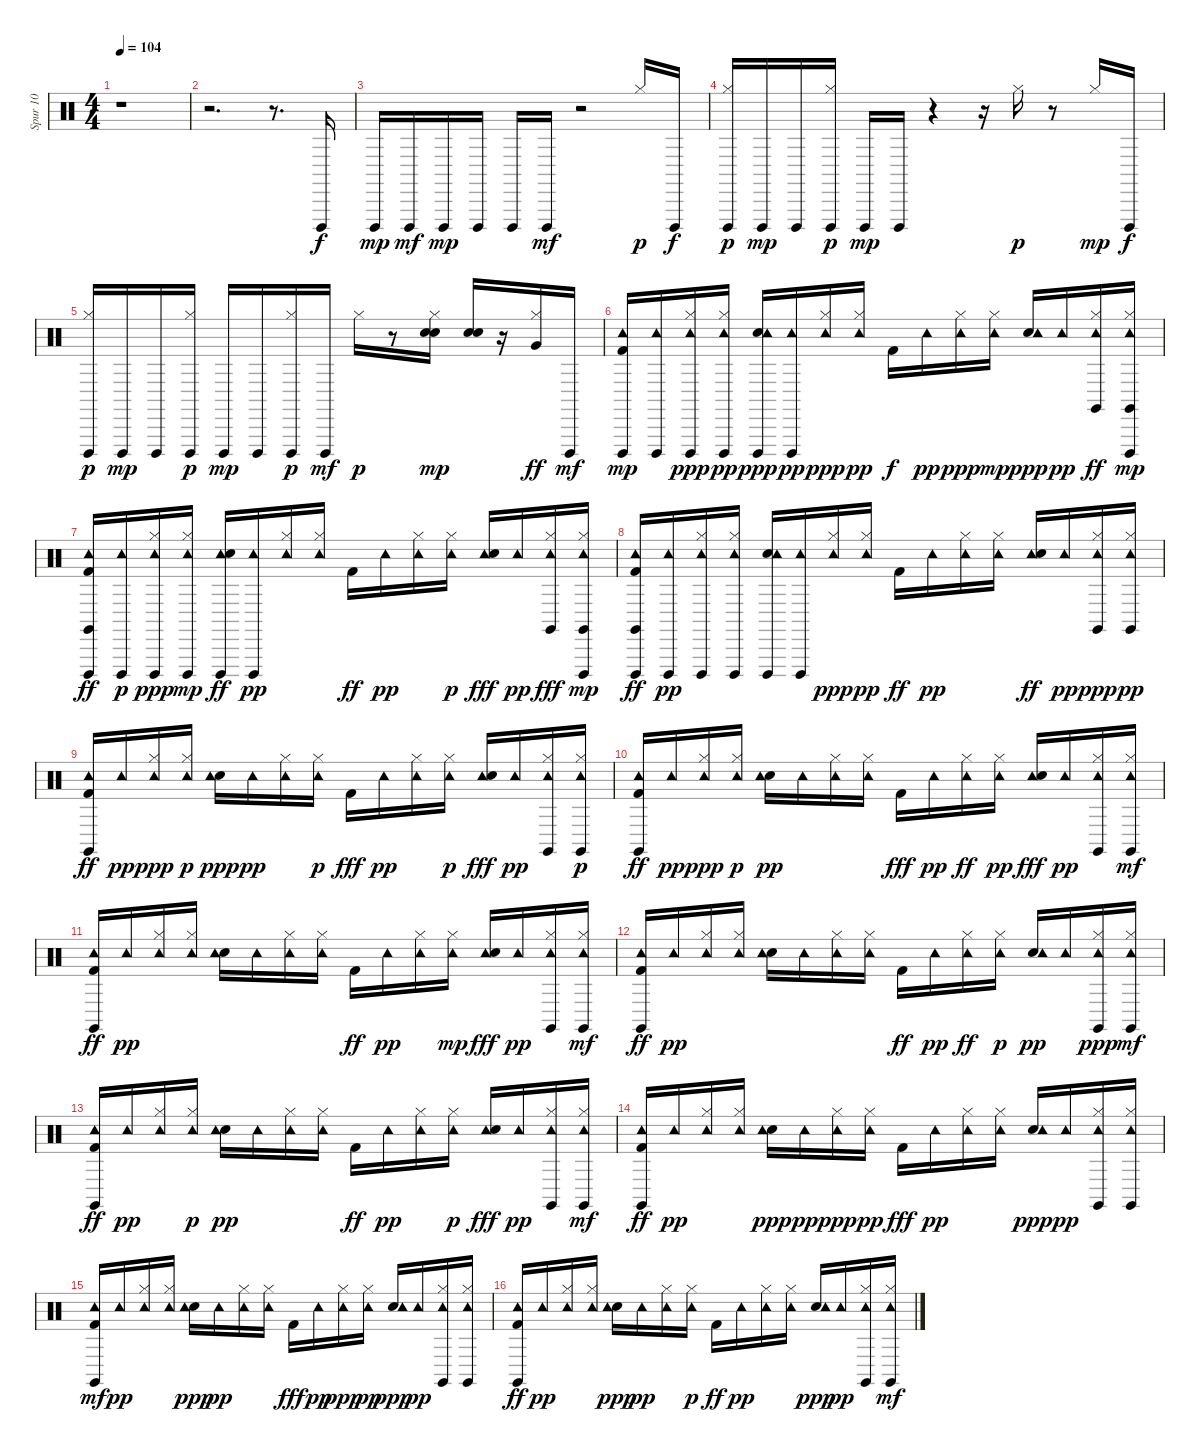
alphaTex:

\track ("Spur 10" "Spur 10") {instrument percussion}
\staff {score}
\articulation defaults
\ts (4 4)
\tempo 104
\clef neutral
\ks c
r.1{dy f} |
r.2{d} r.8{d} "Cuica (open)".16 |
"Cuica (open)".16{dy mp} "Cuica (open)".16{dy mf} "Cuica (open)".16{dy mp} "Cuica (open)".16 "Cuica (open)".16 "Cuica (open)".16{dy mf} r.2 "Hi-Hat (closed)".16{dy p} "Cuica (open)".16{dy f} |
("Cuica (open)" "Hi-Hat (closed)").16{dy p} "Cuica (open)".16{dy mp} "Cuica (open)".16 ("Cuica (open)" "Hi-Hat (closed)").16{dy p} "Cuica (open)".16{dy mp} "Cuica (open)".16 r.4 r.16 "Hi-Hat (closed)".16{dy p} r.8 "Hi-Hat (closed)".16{dy mp} "Cuica (open)".16{dy f} |
("Cuica (open)" "Hi-Hat (closed)").16{dy p} "Cuica (open)".16{dy mp} "Cuica (open)".16 ("Cuica (open)" "Hi-Hat (closed)").16{dy p} "Cuica (open)".16{dy mp} "Cuica (open)".16 ("Cuica (open)" "Hi-Hat (closed)").16{dy p} "Cuica (open)".16{dy mf} "Hi-Hat (closed)".16{dy p} r.8 ("Hi-Hat (closed)" "Electric Snare (hit)" "Electric Snare (hit)").16{dy mp} ("Electric Snare (hit)" "Electric Snare (hit)").16 r.16 ("Hi-Hat (closed)" "Very Low Tom (hit)").16{dy ff} "Cuica (open)".16{dy mf} |
("Tambourine (hit)" "Kick (hit) 2" "Cuica (open)").16{dy mp} ("Tambourine (hit)" "Cuica (open)").16 ("Hi-Hat (closed)" "Cuica (open)" "Tambourine (hit)").16{dy ppp} ("Hi-Hat (closed)" "Cuica (open)" "Tambourine (hit)").16{dy pp} ("Cuica (open)" "Electric Snare (hit)" "Tambourine (hit)").16{dy ppp} ("Cuica (open)" "Tambourine (hit)").16{dy pp} ("Hi-Hat (closed)" "Tambourine (hit)").16{dy ppp} ("Hi-Hat (closed)" "Tambourine (hit)").16{dy pp} "Kick (hit) 2".16{dy f} "Tambourine (hit)".16{dy pp} ("Hi-Hat (closed)" "Tambourine (hit)").16{dy ppp} ("Tambourine (hit)" "Hi-Hat (closed)").16{dy mp} ("Electric Snare (hit)" "Tambourine (hit)").16{dy ppp} "Tambourine (hit)".16{dy pp} ("Tambourine (hit)" "Hi-Hat (closed)" "Claves (hit)").16{dy ff} ("Claves (hit)" "Cuica (open)" "Tambourine (hit)" "Hi-Hat (closed)").16{dy mp} |
("Cuica (open)" "Claves (hit)" "Tambourine (hit)" "Kick (hit) 2").16{dy ff} ("Cuica (open)" "Tambourine (hit)").16{dy p} ("Hi-Hat (closed)" "Cuica (open)" "Tambourine (hit)").16{dy ppp} ("Cuica (open)" "Tambourine (hit)" "Hi-Hat (closed)").16{dy mp} ("Cuica (open)" "Tambourine (hit)" "Electric Snare (hit)").16{dy ff} ("Cuica (open)" "Tambourine (hit)").16{dy pp} ("Hi-Hat (closed)" "Tambourine (hit)").16 ("Hi-Hat (closed)" "Tambourine (hit)").16 "Kick (hit) 2".16{dy ff} "Tambourine (hit)".16{dy pp} ("Hi-Hat (closed)" "Tambourine (hit)").16 ("Tambourine (hit)" "Hi-Hat (closed)").16{dy p} ("Tambourine (hit)" "Electric Snare (hit)").16{dy fff} "Tambourine (hit)".16{dy pp} ("Tambourine (hit)" "Hi-Hat (closed)" "Claves (hit)").16{dy fff} ("Cuica (open)" "Tambourine (hit)" "Hi-Hat (closed)" "Claves (hit)").16{dy mp} |
("Cuica (open)" "Tambourine (hit)" "Kick (hit) 2" "Claves (hit)").16{dy ff} ("Cuica (open)" "Tambourine (hit)").16{dy pp} ("Cuica (open)" "Hi-Hat (closed)" "Tambourine (hit)").16 ("Cuica (open)" "Hi-Hat (closed)" "Tambourine (hit)").16 ("Cuica (open)" "Electric Snare (hit)" "Tambourine (hit)").16 ("Cuica (open)" "Tambourine (hit)").16 ("Hi-Hat (closed)" "Tambourine (hit)").16{dy ppp} ("Hi-Hat (closed)" "Tambourine (hit)").16{dy pp} "Kick (hit) 2".16{dy ff} "Tambourine (hit)".16{dy pp} ("Hi-Hat (closed)" "Tambourine (hit)").16 ("Hi-Hat (closed)" "Tambourine (hit)").16 ("Tambourine (hit)" "Electric Snare (hit)").16{dy ff} "Tambourine (hit)".16{dy pp} ("Hi-Hat (closed)" "Claves (hit)" "Tambourine (hit)").16{dy ppp} ("Hi-Hat (closed)" "Claves (hit)" "Tambourine (hit)").16{dy pp} |
("Kick (hit) 2" "Claves (hit)" "Tambourine (hit)").16{dy ff} "Tambourine (hit)".16{dy pp} ("Hi-Hat (closed)" "Tambourine (hit)").16{dy ppp} ("Tambourine (hit)" "Hi-Hat (closed)").16{dy p} ("Electric Snare (hit)" "Tambourine (hit)").16{dy ppp} "Tambourine (hit)".16{dy pp} ("Hi-Hat (closed)" "Tambourine (hit)").16 ("Tambourine (hit)" "Hi-Hat (closed)").16{dy p} "Kick (hit) 2".16{dy fff} "Tambourine (hit)".16{dy pp} ("Hi-Hat (closed)" "Tambourine (hit)").16 ("Tambourine (hit)" "Hi-Hat (closed)").16{dy p} ("Tambourine (hit)" "Electric Snare (hit)").16{dy fff} "Tambourine (hit)".16{dy pp} ("Hi-Hat (closed)" "Claves (hit)" "Tambourine (hit)").16 ("Tambourine (hit)" "Claves (hit)" "Hi-Hat (closed)").16{dy p} |
("Tambourine (hit)" "Kick (hit) 2" "Claves (hit)").16{dy ff} "Tambourine (hit)".16{dy pp} ("Hi-Hat (closed)" "Tambourine (hit)").16{dy ppp} ("Tambourine (hit)" "Hi-Hat (closed)").16{dy p} ("Electric Snare (hit)" "Tambourine (hit)").16{dy pp} "Tambourine (hit)".16 ("Hi-Hat (closed)" "Tambourine (hit)").16 ("Hi-Hat (closed)" "Tambourine (hit)").16 "Kick (hit) 2".16{dy fff} "Tambourine (hit)".16{dy pp} ("Tambourine (hit)" "Hi-Hat (closed)").16{dy ff} ("Hi-Hat (closed)" "Tambourine (hit)").16{dy pp} ("Tambourine (hit)" "Electric Snare (hit)").16{dy fff} "Tambourine (hit)".16{dy pp} ("Hi-Hat (closed)" "Tambourine (hit)" "Claves (hit)").16 ("Tambourine (hit)" "Hi-Hat (closed)" "Claves (hit)").16{dy mf} |
("Tambourine (hit)" "Kick (hit) 2" "Claves (hit)").16{dy ff} "Tambourine (hit)".16{dy pp} ("Hi-Hat (closed)" "Tambourine (hit)").16 ("Hi-Hat (closed)" "Tambourine (hit)").16 ("Electric Snare (hit)" "Tambourine (hit)").16 "Tambourine (hit)".16 ("Hi-Hat (closed)" "Tambourine (hit)").16 ("Hi-Hat (closed)" "Tambourine (hit)").16 "Kick (hit) 2".16{dy ff} "Tambourine (hit)".16{dy pp} ("Hi-Hat (closed)" "Tambourine (hit)").16 ("Tambourine (hit)" "Hi-Hat (closed)").16{dy mp} ("Tambourine (hit)" "Electric Snare (hit)").16{dy fff} "Tambourine (hit)".16{dy pp} ("Hi-Hat (closed)" "Tambourine (hit)" "Claves (hit)").16 ("Tambourine (hit)" "Hi-Hat (closed)" "Claves (hit)").16{dy mf} |
("Tambourine (hit)" "Kick (hit) 2" "Claves (hit)").16{dy ff} "Tambourine (hit)".16{dy pp} ("Hi-Hat (closed)" "Tambourine (hit)").16 ("Hi-Hat (closed)" "Tambourine (hit)").16 ("Electric Snare (hit)" "Tambourine (hit)").16 "Tambourine (hit)".16 ("Hi-Hat (closed)" "Tambourine (hit)").16 ("Hi-Hat (closed)" "Tambourine (hit)").16 "Kick (hit) 2".16{dy ff} "Tambourine (hit)".16{dy pp} ("Tambourine (hit)" "Hi-Hat (closed)").16{dy ff} ("Tambourine (hit)" "Hi-Hat (closed)").16{dy p} ("Electric Snare (hit)" "Tambourine (hit)").16{dy pp} "Tambourine (hit)".16 ("Hi-Hat (closed)" "Claves (hit)" "Tambourine (hit)").16{dy ppp} ("Hi-Hat (closed)" "Tambourine (hit)" "Claves (hit)").16{dy mf} |
("Tambourine (hit)" "Kick (hit) 2" "Claves (hit)").16{dy ff} "Tambourine (hit)".16{dy pp} ("Hi-Hat (closed)" "Tambourine (hit)").16 ("Tambourine (hit)" "Hi-Hat (closed)").16{dy p} ("Electric Snare (hit)" "Tambourine (hit)").16{dy pp} "Tambourine (hit)".16 ("Hi-Hat (closed)" "Tambourine (hit)").16 ("Hi-Hat (closed)" "Tambourine (hit)").16 "Kick (hit) 2".16{dy ff} "Tambourine (hit)".16{dy pp} ("Hi-Hat (closed)" "Tambourine (hit)").16 ("Tambourine (hit)" "Hi-Hat (closed)").16{dy p} ("Tambourine (hit)" "Electric Snare (hit)").16{dy fff} "Tambourine (hit)".16{dy pp} ("Hi-Hat (closed)" "Claves (hit)" "Tambourine (hit)").16 ("Tambourine (hit)" "Hi-Hat (closed)" "Claves (hit)").16{dy mf} |
("Claves (hit)" "Tambourine (hit)" "Kick (hit) 2").16{dy ff} "Tambourine (hit)".16{dy pp} ("Hi-Hat (closed)" "Tambourine (hit)").16 ("Hi-Hat (closed)" "Tambourine (hit)").16 ("Electric Snare (hit)" "Tambourine (hit)").16{dy ppp} "Tambourine (hit)".16{dy pp} ("Hi-Hat (closed)" "Tambourine (hit)").16{dy ppp} ("Hi-Hat (closed)" "Tambourine (hit)").16{dy pp} "Kick (hit) 2".16{dy fff} "Tambourine (hit)".16{dy pp} ("Hi-Hat (closed)" "Tambourine (hit)").16 ("Hi-Hat (closed)" "Tambourine (hit)").16 ("Electric Snare (hit)" "Tambourine (hit)").16{dy ppp} "Tambourine (hit)".16{dy pp} ("Hi-Hat (closed)" "Claves (hit)" "Tambourine (hit)").16 ("Hi-Hat (closed)" "Claves (hit)" "Tambourine (hit)").16 |
("Tambourine (hit)" "Kick (hit) 2" "Claves (hit)").16{dy mf} "Tambourine (hit)".16{dy pp} ("Hi-Hat (closed)" "Tambourine (hit)").16 ("Hi-Hat (closed)" "Tambourine (hit)").16 ("Electric Snare (hit)" "Tambourine (hit)").16{dy ppp} "Tambourine (hit)".16{dy pp} ("Hi-Hat (closed)" "Tambourine (hit)").16 ("Hi-Hat (closed)" "Tambourine (hit)").16 "Kick (hit) 2".16{dy fff} "Tambourine (hit)".16{dy pp} ("Hi-Hat (closed)" "Tambourine (hit)").16{dy ppp} ("Hi-Hat (closed)" "Tambourine (hit)").16{dy pp} ("Electric Snare (hit)" "Tambourine (hit)").16{dy ppp} "Tambourine (hit)".16{dy pp} ("Hi-Hat (closed)" "Claves (hit)" "Tambourine (hit)").16 ("Hi-Hat (closed)" "Claves (hit)" "Tambourine (hit)").16 |
("Tambourine (hit)" "Claves (hit)" "Kick (hit) 2").16{dy ff} "Tambourine (hit)".16{dy pp} ("Hi-Hat (closed)" "Tambourine (hit)").16 ("Hi-Hat (closed)" "Tambourine (hit)").16 ("Electric Snare (hit)" "Tambourine (hit)").16{dy ppp} "Tambourine (hit)".16{dy pp} ("Hi-Hat (closed)" "Tambourine (hit)").16 ("Tambourine (hit)" "Hi-Hat (closed)").16{dy p} "Kick (hit) 2".16{dy ff} "Tambourine (hit)".16{dy pp} ("Hi-Hat (closed)" "Tambourine (hit)").16 ("Tambourine (hit)" "Hi-Hat (closed)").16 ("Electric Snare (hit)" "Tambourine (hit)").16{dy ppp} "Tambourine (hit)".16{dy pp} ("Hi-Hat (closed)" "Tambourine (hit)" "Claves (hit)").16 ("Tambourine (hit)" "Hi-Hat (closed)" "Claves (hit)").16{dy mf}
